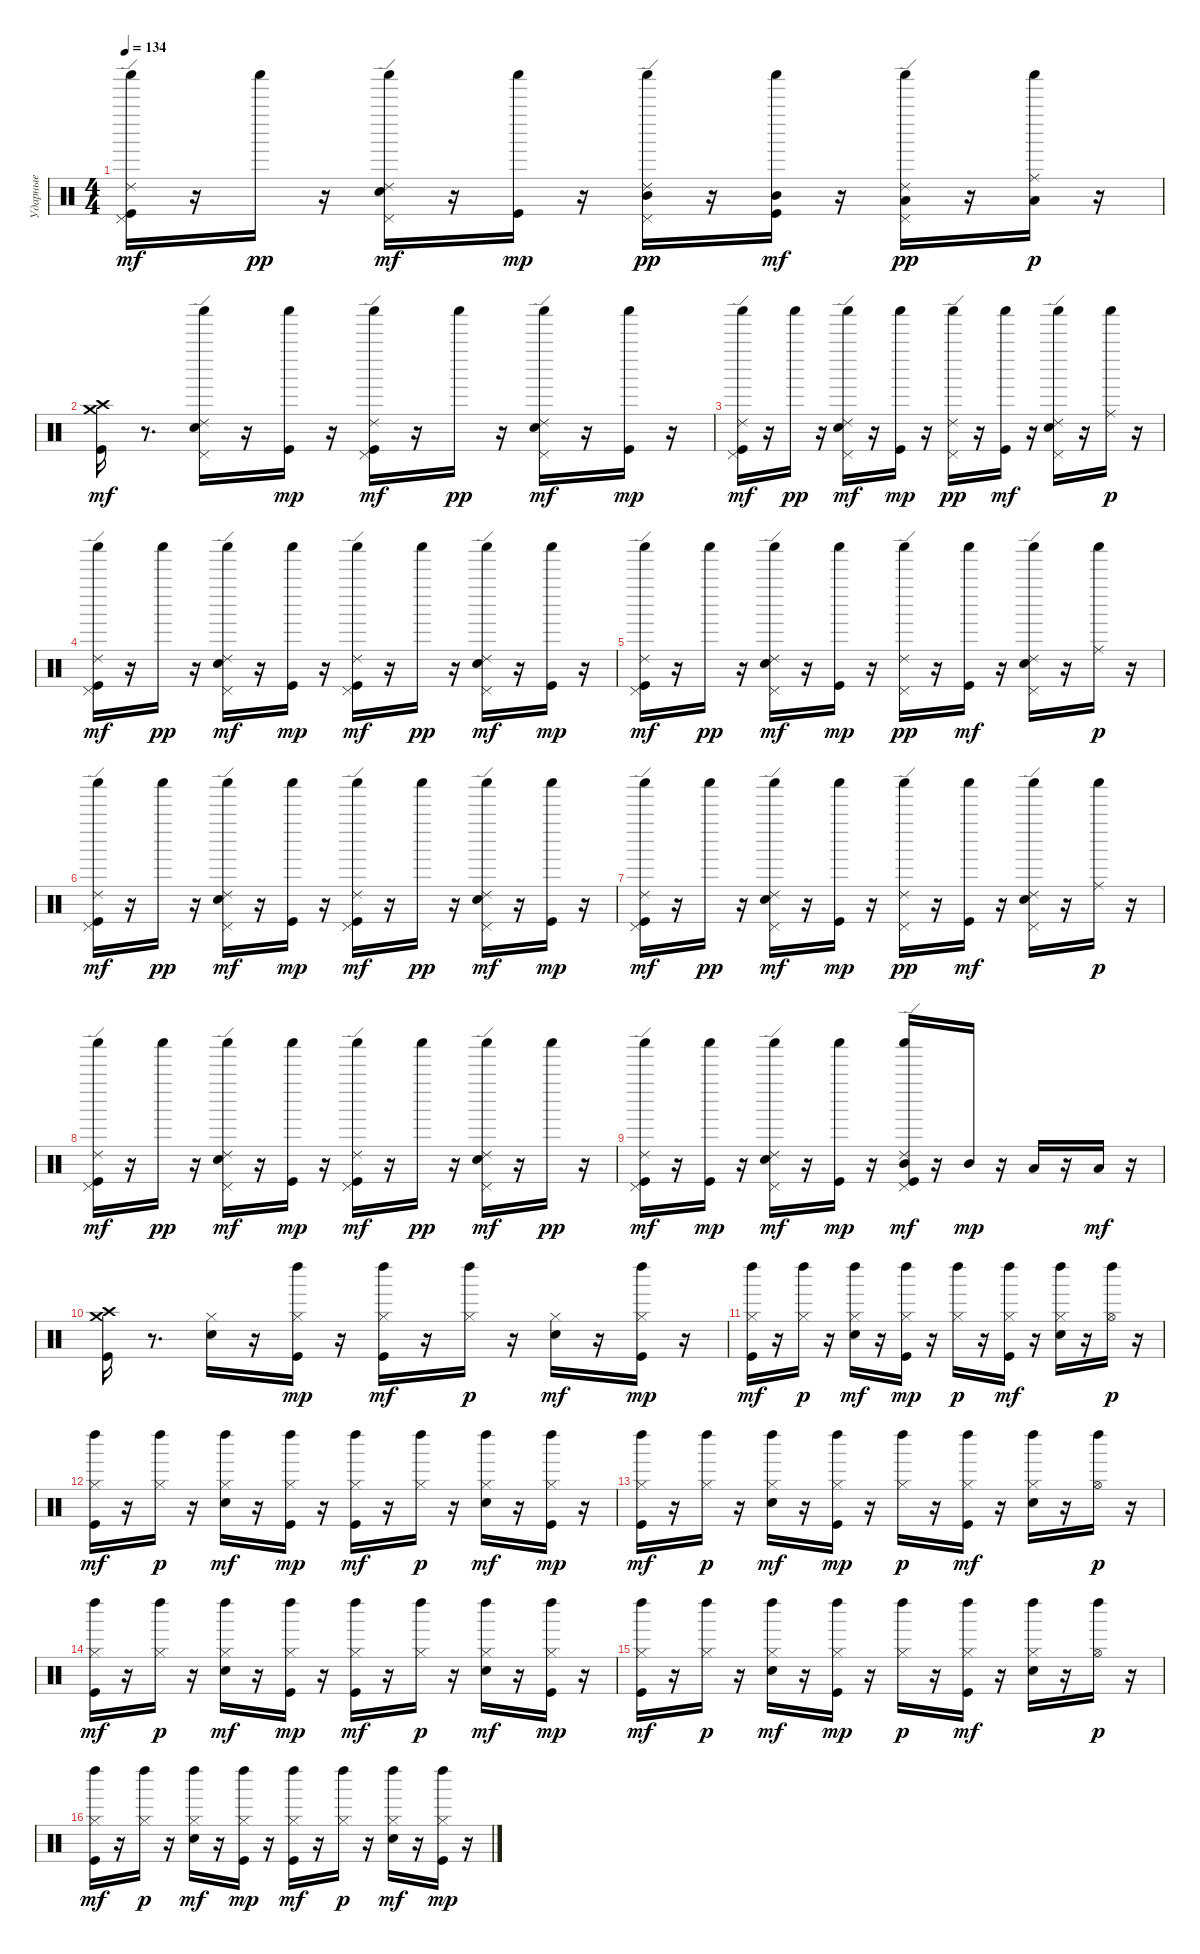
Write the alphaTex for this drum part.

\track ("Ударные" "Ударные") {instrument percussion}
\staff {score}
\articulation defaults
\ts (4 4)
\tempo 134
\clef neutral
\ks c
("Pedal Hi-Hat (hit)" "Ride (edge) 2" "Shaker (hit)" "Kick (hit)").16{dy mf} r.16 "Shaker (hit)".16{dy pp} r.16 ("Pedal Hi-Hat (hit)" "Ride (edge) 2" "Shaker (hit)" "Snare (hit) 2").16{dy mf} r.16 ("Shaker (hit)" "Kick (hit)").16{dy mp} r.16 ("Pedal Hi-Hat (hit)" "Mid Tom (hit)" "Ride (edge) 2" "Shaker (hit)").16{dy pp} r.16 ("Mid Tom (hit)" "Shaker (hit)" "Kick (hit)").16{dy mf} r.16 ("Pedal Hi-Hat (hit)" "Low Tom (hit)" "Ride (edge) 2" "Shaker (hit)").16{dy pp} r.16 ("Low Floor Tom (hit)" "Shaker (hit)" "Ride (middle)").16{dy p} r.16 |
("Crash medium (hit)" "Crash high (hit)" "Kick (hit)").16{dy mf} r.8{d} ("Pedal Hi-Hat (hit)" "Ride (edge) 2" "Shaker (hit)" "Snare (hit) 2").16 r.16 ("Shaker (hit)" "Kick (hit)").16{dy mp} r.16 ("Pedal Hi-Hat (hit)" "Ride (edge) 2" "Shaker (hit)" "Kick (hit)").16{dy mf} r.16 "Shaker (hit)".16{dy pp} r.16 ("Pedal Hi-Hat (hit)" "Ride (edge) 2" "Shaker (hit)" "Snare (hit) 2").16{dy mf} r.16 ("Shaker (hit)" "Kick (hit)").16{dy mp} r.16 |
("Pedal Hi-Hat (hit)" "Ride (edge) 2" "Shaker (hit)" "Kick (hit)").16{dy mf} r.16 "Shaker (hit)".16{dy pp} r.16 ("Pedal Hi-Hat (hit)" "Ride (edge) 2" "Shaker (hit)" "Snare (hit) 2").16{dy mf} r.16 ("Shaker (hit)" "Kick (hit)").16{dy mp} r.16 ("Pedal Hi-Hat (hit)" "Ride (edge) 2" "Shaker (hit)").16{dy pp} r.16 ("Shaker (hit)" "Kick (hit)").16{dy mf} r.16 ("Pedal Hi-Hat (hit)" "Ride (edge) 2" "Shaker (hit)" "Snare (hit) 2").16 r.16 ("Shaker (hit)" "Ride (middle)").16{dy p} r.16 |
("Pedal Hi-Hat (hit)" "Ride (edge) 2" "Shaker (hit)" "Kick (hit)").16{dy mf} r.16 "Shaker (hit)".16{dy pp} r.16 ("Pedal Hi-Hat (hit)" "Ride (edge) 2" "Shaker (hit)" "Snare (hit) 2").16{dy mf} r.16 ("Shaker (hit)" "Kick (hit)").16{dy mp} r.16 ("Pedal Hi-Hat (hit)" "Ride (edge) 2" "Shaker (hit)" "Kick (hit)").16{dy mf} r.16 "Shaker (hit)".16{dy pp} r.16 ("Pedal Hi-Hat (hit)" "Ride (edge) 2" "Shaker (hit)" "Snare (hit) 2").16{dy mf} r.16 ("Shaker (hit)" "Kick (hit)").16{dy mp} r.16 |
("Pedal Hi-Hat (hit)" "Ride (edge) 2" "Shaker (hit)" "Kick (hit)").16{dy mf} r.16 "Shaker (hit)".16{dy pp} r.16 ("Pedal Hi-Hat (hit)" "Ride (edge) 2" "Shaker (hit)" "Snare (hit) 2").16{dy mf} r.16 ("Shaker (hit)" "Kick (hit)").16{dy mp} r.16 ("Pedal Hi-Hat (hit)" "Ride (edge) 2" "Shaker (hit)").16{dy pp} r.16 ("Shaker (hit)" "Kick (hit)").16{dy mf} r.16 ("Pedal Hi-Hat (hit)" "Ride (edge) 2" "Shaker (hit)" "Snare (hit) 2").16 r.16 ("Shaker (hit)" "Ride (middle)").16{dy p} r.16 |
("Pedal Hi-Hat (hit)" "Ride (edge) 2" "Shaker (hit)" "Kick (hit)").16{dy mf} r.16 "Shaker (hit)".16{dy pp} r.16 ("Pedal Hi-Hat (hit)" "Ride (edge) 2" "Shaker (hit)" "Snare (hit) 2").16{dy mf} r.16 ("Shaker (hit)" "Kick (hit)").16{dy mp} r.16 ("Pedal Hi-Hat (hit)" "Ride (edge) 2" "Shaker (hit)" "Kick (hit)").16{dy mf} r.16 "Shaker (hit)".16{dy pp} r.16 ("Pedal Hi-Hat (hit)" "Ride (edge) 2" "Shaker (hit)" "Snare (hit) 2").16{dy mf} r.16 ("Shaker (hit)" "Kick (hit)").16{dy mp} r.16 |
("Pedal Hi-Hat (hit)" "Ride (edge) 2" "Shaker (hit)" "Kick (hit)").16{dy mf} r.16 "Shaker (hit)".16{dy pp} r.16 ("Pedal Hi-Hat (hit)" "Ride (edge) 2" "Shaker (hit)" "Snare (hit) 2").16{dy mf} r.16 ("Shaker (hit)" "Kick (hit)").16{dy mp} r.16 ("Pedal Hi-Hat (hit)" "Ride (edge) 2" "Shaker (hit)").16{dy pp} r.16 ("Shaker (hit)" "Kick (hit)").16{dy mf} r.16 ("Pedal Hi-Hat (hit)" "Ride (edge) 2" "Shaker (hit)" "Snare (hit) 2").16 r.16 ("Shaker (hit)" "Ride (middle)").16{dy p} r.16 |
("Shaker (hit)" "Ride (edge) 2" "Pedal Hi-Hat (hit)" "Kick (hit)").16{dy mf} r.16 "Shaker (hit)".16{dy pp} r.16 ("Shaker (hit)" "Ride (edge) 2" "Pedal Hi-Hat (hit)" "Snare (hit) 2").16{dy mf} r.16 ("Shaker (hit)" "Kick (hit)").16{dy mp} r.16 ("Shaker (hit)" "Ride (edge) 2" "Pedal Hi-Hat (hit)" "Kick (hit)").16{dy mf} r.16 "Shaker (hit)".16{dy pp} r.16 ("Shaker (hit)" "Ride (edge) 2" "Pedal Hi-Hat (hit)" "Snare (hit) 2").16{dy mf} r.16 "Shaker (hit)".16{dy pp} r.16 |
("Shaker (hit)" "Ride (edge) 2" "Pedal Hi-Hat (hit)" "Kick (hit)").16{dy mf} r.16 ("Shaker (hit)" "Kick (hit)").16{dy mp} r.16 ("Shaker (hit)" "Ride (edge) 2" "Pedal Hi-Hat (hit)" "Snare (hit) 2").16{dy mf} r.16 ("Shaker (hit)" "Kick (hit)").16{dy mp} r.16 ("Shaker (hit)" "Ride (edge) 2" "Mid Tom (hit)" "Pedal Hi-Hat (hit)" "Kick (hit)").16{dy mf} r.16 "Mid Tom (hit)".16{dy mp} r.16 "Low Tom (hit)".16 r.16 "Low Floor Tom (hit)".16{dy mf} r.16 |
("Crash medium (hit)" "Crash high (hit)" "Kick (hit)").16 r.8{d} ("Hi-Hat (closed)" "Snare (hit) 2").16 r.16 ("Hi-Hat (closed)" "Left Maraca (hit)" "Kick (hit)").16{dy mp} r.16 ("Hi-Hat (closed)" "Left Maraca (hit)" "Kick (hit)").16{dy mf} r.16 ("Hi-Hat (closed)" "Left Maraca (hit)").16{dy p} r.16 ("Hi-Hat (closed)" "Snare (hit) 2").16{dy mf} r.16 ("Hi-Hat (closed)" "Left Maraca (hit)" "Kick (hit)").16{dy mp} r.16 |
("Hi-Hat (closed)" "Left Maraca (hit)" "Kick (hit)").16{dy mf} r.16 ("Hi-Hat (closed)" "Left Maraca (hit)").16{dy p} r.16 ("Hi-Hat (closed)" "Left Maraca (hit)" "Snare (hit) 2").16{dy mf} r.16 ("Hi-Hat (closed)" "Left Maraca (hit)" "Kick (hit)").16{dy mp} r.16 ("Hi-Hat (closed)" "Left Maraca (hit)").16{dy p} r.16 ("Hi-Hat (closed)" "Left Maraca (hit)" "Kick (hit)").16{dy mf} r.16 ("Hi-Hat (closed)" "Left Maraca (hit)" "Snare (hit) 2").16 r.16 ("Hi-Hat (open)" "Left Maraca (hit)").16{dy p} r.16 |
("Hi-Hat (closed)" "Left Maraca (hit)" "Kick (hit)").16{dy mf} r.16 ("Hi-Hat (closed)" "Left Maraca (hit)").16{dy p} r.16 ("Hi-Hat (closed)" "Left Maraca (hit)" "Snare (hit) 2").16{dy mf} r.16 ("Hi-Hat (closed)" "Left Maraca (hit)" "Kick (hit)").16{dy mp} r.16 ("Hi-Hat (closed)" "Left Maraca (hit)" "Kick (hit)").16{dy mf} r.16 ("Hi-Hat (closed)" "Left Maraca (hit)").16{dy p} r.16 ("Hi-Hat (closed)" "Left Maraca (hit)" "Snare (hit) 2").16{dy mf} r.16 ("Hi-Hat (closed)" "Left Maraca (hit)" "Kick (hit)").16{dy mp} r.16 |
("Hi-Hat (closed)" "Left Maraca (hit)" "Kick (hit)").16{dy mf} r.16 ("Hi-Hat (closed)" "Left Maraca (hit)").16{dy p} r.16 ("Hi-Hat (closed)" "Left Maraca (hit)" "Snare (hit) 2").16{dy mf} r.16 ("Hi-Hat (closed)" "Left Maraca (hit)" "Kick (hit)").16{dy mp} r.16 ("Hi-Hat (closed)" "Left Maraca (hit)").16{dy p} r.16 ("Hi-Hat (closed)" "Left Maraca (hit)" "Kick (hit)").16{dy mf} r.16 ("Hi-Hat (closed)" "Left Maraca (hit)" "Snare (hit) 2").16 r.16 ("Hi-Hat (open)" "Left Maraca (hit)").16{dy p} r.16 |
("Hi-Hat (closed)" "Left Maraca (hit)" "Kick (hit)").16{dy mf} r.16 ("Hi-Hat (closed)" "Left Maraca (hit)").16{dy p} r.16 ("Hi-Hat (closed)" "Left Maraca (hit)" "Snare (hit) 2").16{dy mf} r.16 ("Hi-Hat (closed)" "Left Maraca (hit)" "Kick (hit)").16{dy mp} r.16 ("Hi-Hat (closed)" "Left Maraca (hit)" "Kick (hit)").16{dy mf} r.16 ("Hi-Hat (closed)" "Left Maraca (hit)").16{dy p} r.16 ("Hi-Hat (closed)" "Left Maraca (hit)" "Snare (hit) 2").16{dy mf} r.16 ("Hi-Hat (closed)" "Left Maraca (hit)" "Kick (hit)").16{dy mp} r.16 |
("Hi-Hat (closed)" "Left Maraca (hit)" "Kick (hit)").16{dy mf} r.16 ("Hi-Hat (closed)" "Left Maraca (hit)").16{dy p} r.16 ("Hi-Hat (closed)" "Left Maraca (hit)" "Snare (hit) 2").16{dy mf} r.16 ("Hi-Hat (closed)" "Left Maraca (hit)" "Kick (hit)").16{dy mp} r.16 ("Hi-Hat (closed)" "Left Maraca (hit)").16{dy p} r.16 ("Hi-Hat (closed)" "Left Maraca (hit)" "Kick (hit)").16{dy mf} r.16 ("Hi-Hat (closed)" "Left Maraca (hit)" "Snare (hit) 2").16 r.16 ("Hi-Hat (open)" "Left Maraca (hit)").16{dy p} r.16 |
("Hi-Hat (closed)" "Left Maraca (hit)" "Kick (hit)").16{dy mf} r.16 ("Hi-Hat (closed)" "Left Maraca (hit)").16{dy p} r.16 ("Hi-Hat (closed)" "Left Maraca (hit)" "Snare (hit) 2").16{dy mf} r.16 ("Hi-Hat (closed)" "Left Maraca (hit)" "Kick (hit)").16{dy mp} r.16 ("Hi-Hat (closed)" "Left Maraca (hit)" "Kick (hit)").16{dy mf} r.16 ("Hi-Hat (closed)" "Left Maraca (hit)").16{dy p} r.16 ("Hi-Hat (closed)" "Left Maraca (hit)" "Snare (hit) 2").16{dy mf} r.16 ("Hi-Hat (closed)" "Left Maraca (hit)" "Kick (hit)").16{dy mp} r.16
